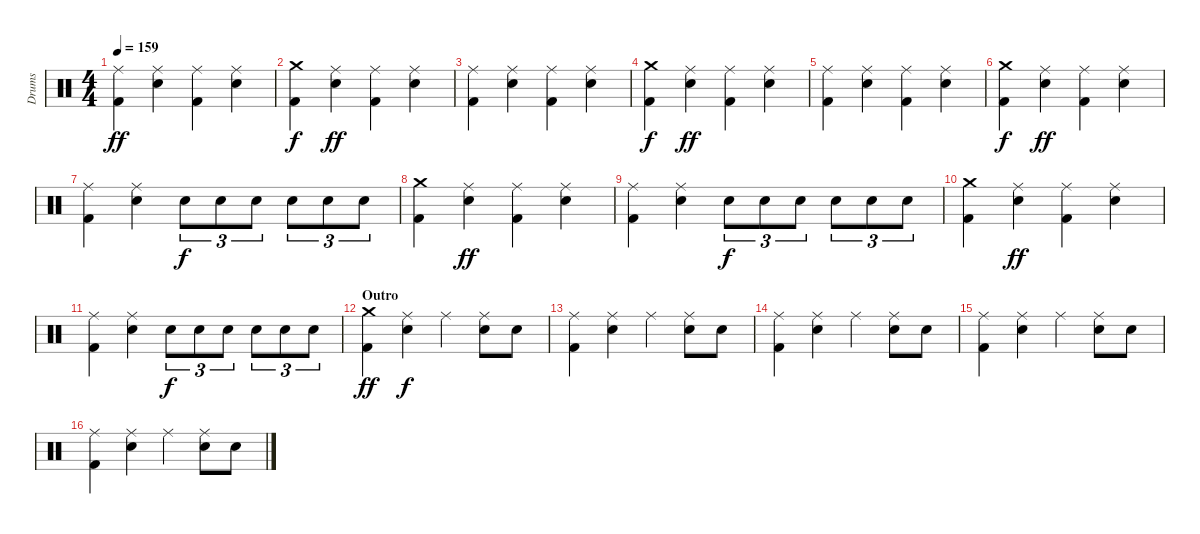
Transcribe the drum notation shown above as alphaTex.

\track ("Drums" "Drums") {instrument percussion}
\staff {score}
\articulation defaults
\ts (4 4)
\tempo 159
\clef neutral
\ks c
("Ride (middle)" "Kick (hit) 2").4{dy ff} ("Ride (middle)" "Snare (hit) 2").4 ("Ride (middle)" "Kick (hit) 2").4 ("Ride (middle)" "Snare (hit) 2").4 |
("Crash medium (hit)" "Kick (hit) 2").4{dy f} ("Ride (middle)" "Snare (hit) 2").4{dy ff} ("Ride (middle)" "Kick (hit) 2").4 ("Ride (middle)" "Snare (hit) 2").4 |
("Ride (middle)" "Kick (hit) 2").4 ("Ride (middle)" "Snare (hit) 2").4 ("Ride (middle)" "Kick (hit) 2").4 ("Ride (middle)" "Snare (hit) 2").4 |
("Crash medium (hit)" "Kick (hit) 2").4{dy f} ("Ride (middle)" "Snare (hit) 2").4{dy ff} ("Ride (middle)" "Kick (hit) 2").4 ("Ride (middle)" "Snare (hit) 2").4 |
("Ride (middle)" "Kick (hit) 2").4 ("Ride (middle)" "Snare (hit) 2").4 ("Ride (middle)" "Kick (hit) 2").4 ("Ride (middle)" "Snare (hit) 2").4 |
("Crash medium (hit)" "Kick (hit) 2").4{dy f} ("Ride (middle)" "Snare (hit) 2").4{dy ff} ("Ride (middle)" "Kick (hit) 2").4 ("Ride (middle)" "Snare (hit) 2").4 |
("Ride (middle)" "Kick (hit) 2").4 ("Ride (middle)" "Snare (hit) 2").4 "Snare (hit) 2".8{tu (3 2) dy f} "Snare (hit) 2".8{tu (3 2)} "Snare (hit) 2".8{tu (3 2)} "Snare (hit) 2".8{tu (3 2)} "Snare (hit) 2".8{tu (3 2)} "Snare (hit) 2".8{tu (3 2)} |
("Crash medium (hit)" "Kick (hit) 2").4 ("Ride (middle)" "Snare (hit) 2").4{dy ff} ("Ride (middle)" "Kick (hit) 2").4 ("Ride (middle)" "Snare (hit) 2").4 |
("Ride (middle)" "Kick (hit) 2").4 ("Ride (middle)" "Snare (hit) 2").4 "Snare (hit) 2".8{tu (3 2) dy f} "Snare (hit) 2".8{tu (3 2)} "Snare (hit) 2".8{tu (3 2)} "Snare (hit) 2".8{tu (3 2)} "Snare (hit) 2".8{tu (3 2)} "Snare (hit) 2".8{tu (3 2)} |
("Crash medium (hit)" "Kick (hit) 2").4 ("Ride (middle)" "Snare (hit) 2").4{dy ff} ("Ride (middle)" "Kick (hit) 2").4 ("Ride (middle)" "Snare (hit) 2").4 |
("Ride (middle)" "Kick (hit) 2").4 ("Ride (middle)" "Snare (hit) 2").4 "Snare (hit) 2".8{tu (3 2) dy f} "Snare (hit) 2".8{tu (3 2)} "Snare (hit) 2".8{tu (3 2)} "Snare (hit) 2".8{tu (3 2)} "Snare (hit) 2".8{tu (3 2)} "Snare (hit) 2".8{tu (3 2)} |
\section ("" "Outro")
("Crash medium (hit)" "Kick (hit) 2").4{dy ff} ("Ride (middle)" "Snare (hit) 2").4{dy f} "Ride (middle)".4 ("Ride (middle)" "Snare (hit) 2").8 "Snare (hit) 2".8 |
("Ride (middle)" "Kick (hit) 2").4 ("Ride (middle)" "Snare (hit) 2").4 "Ride (middle)".4 ("Ride (middle)" "Snare (hit) 2").8 "Snare (hit) 2".8 |
("Ride (middle)" "Kick (hit) 2").4 ("Ride (middle)" "Snare (hit) 2").4 "Ride (middle)".4 ("Ride (middle)" "Snare (hit) 2").8 "Snare (hit) 2".8 |
("Ride (middle)" "Kick (hit) 2").4 ("Ride (middle)" "Snare (hit) 2").4 "Ride (middle)".4 ("Ride (middle)" "Snare (hit) 2").8 "Snare (hit) 2".8 |
("Ride (middle)" "Kick (hit) 2").4 ("Ride (middle)" "Snare (hit) 2").4 "Ride (middle)".4 ("Ride (middle)" "Snare (hit) 2").8 "Snare (hit) 2".8
